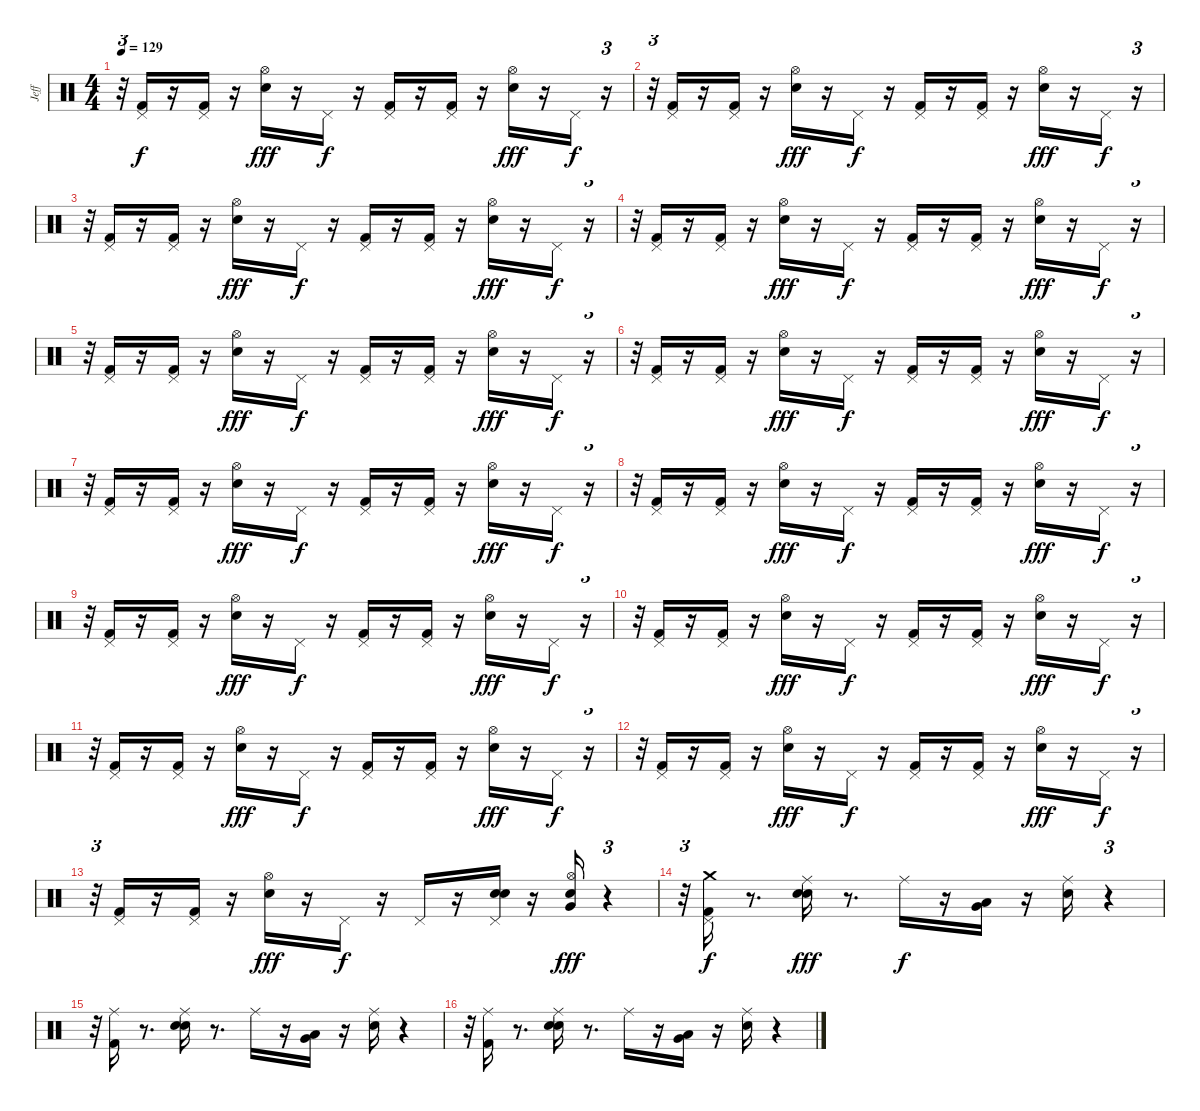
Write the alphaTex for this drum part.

\track ("Jeff" "Jeff") {instrument percussion}
\staff {score}
\articulation defaults
\ts (4 4)
\tempo 129
\clef neutral
\ks c
r.32{tu (3 2) dy f} ("Kick (hit) 2" "Pedal Hi-Hat (hit)").16 r.16 ("Kick (hit) 2" "Pedal Hi-Hat (hit)").16 r.16 ("Electric Snare (hit)" "Hi-Hat (open)").16{dy fff} r.16 "Pedal Hi-Hat (hit)".16{dy f} r.16 ("Kick (hit) 2" "Pedal Hi-Hat (hit)").16 r.16 ("Kick (hit) 2" "Pedal Hi-Hat (hit)").16 r.16 ("Electric Snare (hit)" "Hi-Hat (open)").16{dy fff} r.16 "Pedal Hi-Hat (hit)".16{dy f} r.16{tu (3 2)} |
r.32{tu (3 2)} ("Kick (hit) 2" "Pedal Hi-Hat (hit)").16 r.16 ("Kick (hit) 2" "Pedal Hi-Hat (hit)").16 r.16 ("Electric Snare (hit)" "Hi-Hat (open)").16{dy fff} r.16 "Pedal Hi-Hat (hit)".16{dy f} r.16 ("Kick (hit) 2" "Pedal Hi-Hat (hit)").16 r.16 ("Kick (hit) 2" "Pedal Hi-Hat (hit)").16 r.16 ("Electric Snare (hit)" "Hi-Hat (open)").16{dy fff} r.16 "Pedal Hi-Hat (hit)".16{dy f} r.16{tu (3 2)} |
r.32{tu (3 2)} ("Kick (hit) 2" "Pedal Hi-Hat (hit)").16 r.16 ("Kick (hit) 2" "Pedal Hi-Hat (hit)").16 r.16 ("Electric Snare (hit)" "Hi-Hat (open)").16{dy fff} r.16 "Pedal Hi-Hat (hit)".16{dy f} r.16 ("Kick (hit) 2" "Pedal Hi-Hat (hit)").16 r.16 ("Kick (hit) 2" "Pedal Hi-Hat (hit)").16 r.16 ("Electric Snare (hit)" "Hi-Hat (open)").16{dy fff} r.16 "Pedal Hi-Hat (hit)".16{dy f} r.16{tu (3 2)} |
r.32{tu (3 2)} ("Kick (hit) 2" "Pedal Hi-Hat (hit)").16 r.16 ("Kick (hit) 2" "Pedal Hi-Hat (hit)").16 r.16 ("Electric Snare (hit)" "Hi-Hat (open)").16{dy fff} r.16 "Pedal Hi-Hat (hit)".16{dy f} r.16 ("Kick (hit) 2" "Pedal Hi-Hat (hit)").16 r.16 ("Kick (hit) 2" "Pedal Hi-Hat (hit)").16 r.16 ("Electric Snare (hit)" "Hi-Hat (open)").16{dy fff} r.16 "Pedal Hi-Hat (hit)".16{dy f} r.16{tu (3 2)} |
r.32{tu (3 2)} ("Kick (hit) 2" "Pedal Hi-Hat (hit)").16 r.16 ("Kick (hit) 2" "Pedal Hi-Hat (hit)").16 r.16 ("Electric Snare (hit)" "Hi-Hat (open)").16{dy fff} r.16 "Pedal Hi-Hat (hit)".16{dy f} r.16 ("Kick (hit) 2" "Pedal Hi-Hat (hit)").16 r.16 ("Kick (hit) 2" "Pedal Hi-Hat (hit)").16 r.16 ("Electric Snare (hit)" "Hi-Hat (open)").16{dy fff} r.16 "Pedal Hi-Hat (hit)".16{dy f} r.16{tu (3 2)} |
r.32{tu (3 2)} ("Kick (hit) 2" "Pedal Hi-Hat (hit)").16 r.16 ("Kick (hit) 2" "Pedal Hi-Hat (hit)").16 r.16 ("Electric Snare (hit)" "Hi-Hat (open)").16{dy fff} r.16 "Pedal Hi-Hat (hit)".16{dy f} r.16 ("Kick (hit) 2" "Pedal Hi-Hat (hit)").16 r.16 ("Kick (hit) 2" "Pedal Hi-Hat (hit)").16 r.16 ("Electric Snare (hit)" "Hi-Hat (open)").16{dy fff} r.16 "Pedal Hi-Hat (hit)".16{dy f} r.16{tu (3 2)} |
r.32{tu (3 2)} ("Kick (hit) 2" "Pedal Hi-Hat (hit)").16 r.16 ("Kick (hit) 2" "Pedal Hi-Hat (hit)").16 r.16 ("Electric Snare (hit)" "Hi-Hat (open)").16{dy fff} r.16 "Pedal Hi-Hat (hit)".16{dy f} r.16 ("Kick (hit) 2" "Pedal Hi-Hat (hit)").16 r.16 ("Kick (hit) 2" "Pedal Hi-Hat (hit)").16 r.16 ("Electric Snare (hit)" "Hi-Hat (open)").16{dy fff} r.16 "Pedal Hi-Hat (hit)".16{dy f} r.16{tu (3 2)} |
r.32{tu (3 2)} ("Kick (hit) 2" "Pedal Hi-Hat (hit)").16 r.16 ("Kick (hit) 2" "Pedal Hi-Hat (hit)").16 r.16 ("Electric Snare (hit)" "Hi-Hat (open)").16{dy fff} r.16 "Pedal Hi-Hat (hit)".16{dy f} r.16 ("Kick (hit) 2" "Pedal Hi-Hat (hit)").16 r.16 ("Kick (hit) 2" "Pedal Hi-Hat (hit)").16 r.16 ("Electric Snare (hit)" "Hi-Hat (open)").16{dy fff} r.16 "Pedal Hi-Hat (hit)".16{dy f} r.16{tu (3 2)} |
r.32{tu (3 2)} ("Kick (hit) 2" "Pedal Hi-Hat (hit)").16 r.16 ("Kick (hit) 2" "Pedal Hi-Hat (hit)").16 r.16 ("Electric Snare (hit)" "Hi-Hat (open)").16{dy fff} r.16 "Pedal Hi-Hat (hit)".16{dy f} r.16 ("Kick (hit) 2" "Pedal Hi-Hat (hit)").16 r.16 ("Kick (hit) 2" "Pedal Hi-Hat (hit)").16 r.16 ("Electric Snare (hit)" "Hi-Hat (open)").16{dy fff} r.16 "Pedal Hi-Hat (hit)".16{dy f} r.16{tu (3 2)} |
r.32{tu (3 2)} ("Kick (hit) 2" "Pedal Hi-Hat (hit)").16 r.16 ("Kick (hit) 2" "Pedal Hi-Hat (hit)").16 r.16 ("Electric Snare (hit)" "Hi-Hat (open)").16{dy fff} r.16 "Pedal Hi-Hat (hit)".16{dy f} r.16 ("Kick (hit) 2" "Pedal Hi-Hat (hit)").16 r.16 ("Kick (hit) 2" "Pedal Hi-Hat (hit)").16 r.16 ("Electric Snare (hit)" "Hi-Hat (open)").16{dy fff} r.16 "Pedal Hi-Hat (hit)".16{dy f} r.16{tu (3 2)} |
r.32{tu (3 2)} ("Kick (hit) 2" "Pedal Hi-Hat (hit)").16 r.16 ("Kick (hit) 2" "Pedal Hi-Hat (hit)").16 r.16 ("Electric Snare (hit)" "Hi-Hat (open)").16{dy fff} r.16 "Pedal Hi-Hat (hit)".16{dy f} r.16 ("Kick (hit) 2" "Pedal Hi-Hat (hit)").16 r.16 ("Kick (hit) 2" "Pedal Hi-Hat (hit)").16 r.16 ("Electric Snare (hit)" "Hi-Hat (open)").16{dy fff} r.16 "Pedal Hi-Hat (hit)".16{dy f} r.16{tu (3 2)} |
r.32{tu (3 2)} ("Kick (hit) 2" "Pedal Hi-Hat (hit)").16 r.16 ("Kick (hit) 2" "Pedal Hi-Hat (hit)").16 r.16 ("Electric Snare (hit)" "Hi-Hat (open)").16{dy fff} r.16 "Pedal Hi-Hat (hit)".16{dy f} r.16 ("Kick (hit) 2" "Pedal Hi-Hat (hit)").16 r.16 ("Kick (hit) 2" "Pedal Hi-Hat (hit)").16 r.16 ("Electric Snare (hit)" "Hi-Hat (open)").16{dy fff} r.16 "Pedal Hi-Hat (hit)".16{dy f} r.16{tu (3 2)} |
r.32{tu (3 2)} ("Kick (hit) 2" "Pedal Hi-Hat (hit)").16 r.16 ("Kick (hit) 2" "Pedal Hi-Hat (hit)").16 r.16 ("Electric Snare (hit)" "Hi-Hat (open)").16{dy fff} r.16 "Pedal Hi-Hat (hit)".16{dy f} r.16 "Pedal Hi-Hat (hit)".16 r.16 ("Snare (hit) 2" "Electric Snare (hit)" "Pedal Hi-Hat (hit)").16 r.16 ("Electric Snare (hit)" "Very Low Tom (hit)" "Hi-Hat (open)").16{dy fff} r.4{tu (3 2)} |
r.32{tu (3 2)} ("Kick (hit) 2" "Pedal Hi-Hat (hit)" "Crash medium (hit)").16{dy f} r.8{d} ("Snare (hit) 2" "Electric Snare (hit)" "Ride (middle)").16{dy fff} r.8{d} "Ride (middle)".16{dy f} r.16 ("Very Low Tom (hit)" "Low Tom (hit)").16 r.16 ("Snare (hit) 2" "Ride (middle)").16 r.4{tu (3 2)} |
r.32{tu (3 2)} ("Kick (hit) 2" "Ride (middle)").16 r.8{d} ("Snare (hit) 2" "Electric Snare (hit)" "Ride (middle)").16 r.8{d} "Ride (middle)".16 r.16 ("Very Low Tom (hit)" "Low Tom (hit)").16 r.16 ("Snare (hit) 2" "Ride (middle)").16 r.4{tu (3 2)} |
r.32{tu (3 2)} ("Kick (hit) 2" "Ride (middle)").16 r.8{d} ("Snare (hit) 2" "Electric Snare (hit)" "Ride (middle)").16 r.8{d} "Ride (middle)".16 r.16 ("Very Low Tom (hit)" "Low Tom (hit)").16 r.16 ("Snare (hit) 2" "Ride (middle)").16 r.4{tu (3 2)}
